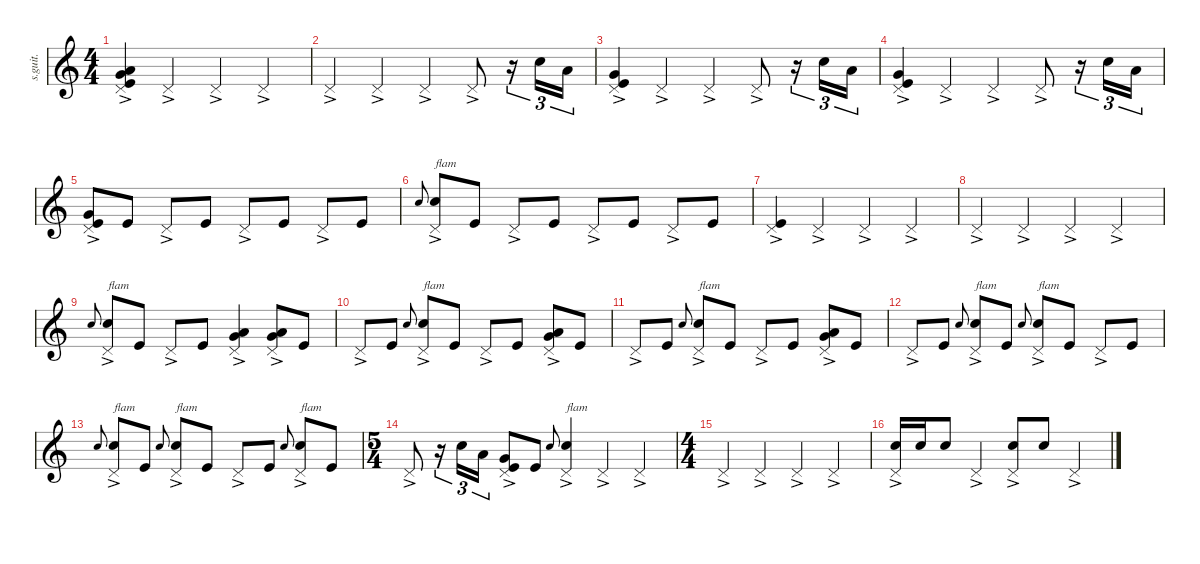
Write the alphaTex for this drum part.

\defaultSystemsLayout 4
\hideDynamics
\bracketExtendMode nobrackets
\track ("Dave Grohl" "s.guit.") {instrument percussion}
\staff {score}
\articulation defaults
\ts (4 4)
\tempo (210 hide)
\clef g2
\ks c
("Pedal Hi-Hat (hit)"{ac} "Kick (hit)" "Low Floor Tom (hit)" "Very Low Tom (hit)").4{lyrics (0 "") lyrics (1 "") lyrics (2 "") lyrics (3 "") lyrics (4 "") dy f} "Pedal Hi-Hat (hit)"{ac}.4{lyrics (0 "") lyrics (1 "") lyrics (2 "") lyrics (3 "") lyrics (4 "")} "Pedal Hi-Hat (hit)"{ac}.4{lyrics (0 "") lyrics (1 "") lyrics (2 "") lyrics (3 "") lyrics (4 "")} "Pedal Hi-Hat (hit)"{ac}.4{lyrics (0 "") lyrics (1 "") lyrics (2 "") lyrics (3 "") lyrics (4 "")} |
"Pedal Hi-Hat (hit)"{ac}.4{lyrics (0 "") lyrics (1 "") lyrics (2 "") lyrics (3 "") lyrics (4 "")} "Pedal Hi-Hat (hit)"{ac}.4{lyrics (0 "") lyrics (1 "") lyrics (2 "") lyrics (3 "") lyrics (4 "")} "Pedal Hi-Hat (hit)"{ac}.4{lyrics (0 "") lyrics (1 "") lyrics (2 "") lyrics (3 "") lyrics (4 "")} "Pedal Hi-Hat (hit)"{ac}.8{lyrics (0 "") lyrics (1 "") lyrics (2 "") lyrics (3 "") lyrics (4 "")} r.16{tu (3 2)} "Snare (hit) 2".16{tu (3 2) lyrics (0 "") lyrics (1 "") lyrics (2 "") lyrics (3 "") lyrics (4 "")} "Low Floor Tom (hit)".16{tu (3 2) lyrics (0 "") lyrics (1 "") lyrics (2 "") lyrics (3 "") lyrics (4 "")} |
("Pedal Hi-Hat (hit)"{ac} "Kick (hit)" "Very Low Tom (hit)").4{lyrics (0 "") lyrics (1 "") lyrics (2 "") lyrics (3 "") lyrics (4 "")} "Pedal Hi-Hat (hit)"{ac}.4{lyrics (0 "") lyrics (1 "") lyrics (2 "") lyrics (3 "") lyrics (4 "")} "Pedal Hi-Hat (hit)"{ac}.4{lyrics (0 "") lyrics (1 "") lyrics (2 "") lyrics (3 "") lyrics (4 "")} "Pedal Hi-Hat (hit)"{ac}.8{lyrics (0 "") lyrics (1 "") lyrics (2 "") lyrics (3 "") lyrics (4 "")} r.16{tu (3 2)} "Snare (hit) 2".16{tu (3 2) lyrics (0 "") lyrics (1 "") lyrics (2 "") lyrics (3 "") lyrics (4 "")} "Low Floor Tom (hit)".16{tu (3 2) lyrics (0 "") lyrics (1 "") lyrics (2 "") lyrics (3 "") lyrics (4 "")} |
("Pedal Hi-Hat (hit)"{ac} "Kick (hit)" "Very Low Tom (hit)").4{lyrics (0 "") lyrics (1 "") lyrics (2 "") lyrics (3 "") lyrics (4 "")} "Pedal Hi-Hat (hit)"{ac}.4{lyrics (0 "") lyrics (1 "") lyrics (2 "") lyrics (3 "") lyrics (4 "")} "Pedal Hi-Hat (hit)"{ac}.4{lyrics (0 "") lyrics (1 "") lyrics (2 "") lyrics (3 "") lyrics (4 "")} "Pedal Hi-Hat (hit)"{ac}.8{lyrics (0 "") lyrics (1 "") lyrics (2 "") lyrics (3 "") lyrics (4 "")} r.16{tu (3 2)} "Snare (hit) 2".16{tu (3 2) lyrics (0 "") lyrics (1 "") lyrics (2 "") lyrics (3 "") lyrics (4 "")} "Low Floor Tom (hit)".16{tu (3 2) lyrics (0 "") lyrics (1 "") lyrics (2 "") lyrics (3 "") lyrics (4 "")} |
("Pedal Hi-Hat (hit)"{ac} "Kick (hit)" "Very Low Tom (hit)").8{lyrics (0 "") lyrics (1 "") lyrics (2 "") lyrics (3 "") lyrics (4 "")} "Kick (hit)".8{lyrics (0 "") lyrics (1 "") lyrics (2 "") lyrics (3 "") lyrics (4 "")} "Pedal Hi-Hat (hit)"{ac}.8{lyrics (0 "") lyrics (1 "") lyrics (2 "") lyrics (3 "") lyrics (4 "")} "Kick (hit)".8{lyrics (0 "") lyrics (1 "") lyrics (2 "") lyrics (3 "") lyrics (4 "")} "Pedal Hi-Hat (hit)"{ac}.8{lyrics (0 "") lyrics (1 "") lyrics (2 "") lyrics (3 "") lyrics (4 "")} "Kick (hit)".8{lyrics (0 "") lyrics (1 "") lyrics (2 "") lyrics (3 "") lyrics (4 "")} "Pedal Hi-Hat (hit)"{ac}.8{lyrics (0 "") lyrics (1 "") lyrics (2 "") lyrics (3 "") lyrics (4 "")} "Kick (hit)".8{lyrics (0 "") lyrics (1 "") lyrics (2 "") lyrics (3 "") lyrics (4 "")} |
"Snare (hit) 2".8{lyrics (0 "") lyrics (1 "") lyrics (2 "") lyrics (3 "") lyrics (4 "") gr onbeat} ("Pedal Hi-Hat (hit)"{ac} "Snare (hit) 2").8{txt "flam" lyrics (0 "") lyrics (1 "") lyrics (2 "") lyrics (3 "") lyrics (4 "")} "Kick (hit)".8{lyrics (0 "") lyrics (1 "") lyrics (2 "") lyrics (3 "") lyrics (4 "")} "Pedal Hi-Hat (hit)"{ac}.8{lyrics (0 "") lyrics (1 "") lyrics (2 "") lyrics (3 "") lyrics (4 "")} "Kick (hit)".8{lyrics (0 "") lyrics (1 "") lyrics (2 "") lyrics (3 "") lyrics (4 "")} "Pedal Hi-Hat (hit)"{ac}.8{lyrics (0 "") lyrics (1 "") lyrics (2 "") lyrics (3 "") lyrics (4 "")} "Kick (hit)".8{lyrics (0 "") lyrics (1 "") lyrics (2 "") lyrics (3 "") lyrics (4 "")} "Pedal Hi-Hat (hit)"{ac}.8{lyrics (0 "") lyrics (1 "") lyrics (2 "") lyrics (3 "") lyrics (4 "")} "Kick (hit)".8{lyrics (0 "") lyrics (1 "") lyrics (2 "") lyrics (3 "") lyrics (4 "")} |
("Pedal Hi-Hat (hit)"{ac} "Kick (hit)").4{lyrics (0 "") lyrics (1 "") lyrics (2 "") lyrics (3 "") lyrics (4 "")} "Pedal Hi-Hat (hit)"{ac}.4{lyrics (0 "") lyrics (1 "") lyrics (2 "") lyrics (3 "") lyrics (4 "")} "Pedal Hi-Hat (hit)"{ac}.4{lyrics (0 "") lyrics (1 "") lyrics (2 "") lyrics (3 "") lyrics (4 "")} "Pedal Hi-Hat (hit)"{ac}.4{lyrics (0 "") lyrics (1 "") lyrics (2 "") lyrics (3 "") lyrics (4 "")} |
"Pedal Hi-Hat (hit)"{ac}.4{lyrics (0 "") lyrics (1 "") lyrics (2 "") lyrics (3 "") lyrics (4 "")} "Pedal Hi-Hat (hit)"{ac}.4{lyrics (0 "") lyrics (1 "") lyrics (2 "") lyrics (3 "") lyrics (4 "")} "Pedal Hi-Hat (hit)"{ac}.4{lyrics (0 "") lyrics (1 "") lyrics (2 "") lyrics (3 "") lyrics (4 "")} "Pedal Hi-Hat (hit)"{ac}.4{lyrics (0 "") lyrics (1 "") lyrics (2 "") lyrics (3 "") lyrics (4 "")} |
"Snare (hit) 2".8{lyrics (0 "") lyrics (1 "") lyrics (2 "") lyrics (3 "") lyrics (4 "") gr onbeat} ("Pedal Hi-Hat (hit)"{ac} "Snare (hit) 2").8{txt "flam" lyrics (0 "") lyrics (1 "") lyrics (2 "") lyrics (3 "") lyrics (4 "")} "Kick (hit)".8{lyrics (0 "") lyrics (1 "") lyrics (2 "") lyrics (3 "") lyrics (4 "")} "Pedal Hi-Hat (hit)"{ac}.8{lyrics (0 "") lyrics (1 "") lyrics (2 "") lyrics (3 "") lyrics (4 "")} "Kick (hit)".8{lyrics (0 "") lyrics (1 "") lyrics (2 "") lyrics (3 "") lyrics (4 "")} ("Pedal Hi-Hat (hit)"{ac} "Low Floor Tom (hit)" "Very Low Tom (hit)").4{lyrics (0 "") lyrics (1 "") lyrics (2 "") lyrics (3 "") lyrics (4 "")} ("Pedal Hi-Hat (hit)"{ac} "Low Floor Tom (hit)" "Very Low Tom (hit)").8{lyrics (0 "") lyrics (1 "") lyrics (2 "") lyrics (3 "") lyrics (4 "")} "Kick (hit)".8{lyrics (0 "") lyrics (1 "") lyrics (2 "") lyrics (3 "") lyrics (4 "")} |
"Pedal Hi-Hat (hit)"{ac}.8{lyrics (0 "") lyrics (1 "") lyrics (2 "") lyrics (3 "") lyrics (4 "")} "Kick (hit)".8{lyrics (0 "") lyrics (1 "") lyrics (2 "") lyrics (3 "") lyrics (4 "")} "Snare (hit) 2".8{lyrics (0 "") lyrics (1 "") lyrics (2 "") lyrics (3 "") lyrics (4 "") gr onbeat} ("Pedal Hi-Hat (hit)"{ac} "Snare (hit) 2").8{txt "flam" lyrics (0 "") lyrics (1 "") lyrics (2 "") lyrics (3 "") lyrics (4 "")} "Kick (hit)".8{lyrics (0 "") lyrics (1 "") lyrics (2 "") lyrics (3 "") lyrics (4 "")} "Pedal Hi-Hat (hit)"{ac}.8{lyrics (0 "") lyrics (1 "") lyrics (2 "") lyrics (3 "") lyrics (4 "")} "Kick (hit)".8{lyrics (0 "") lyrics (1 "") lyrics (2 "") lyrics (3 "") lyrics (4 "")} ("Pedal Hi-Hat (hit)"{ac} "Low Floor Tom (hit)" "Very Low Tom (hit)").8{lyrics (0 "") lyrics (1 "") lyrics (2 "") lyrics (3 "") lyrics (4 "")} "Kick (hit)".8{lyrics (0 "") lyrics (1 "") lyrics (2 "") lyrics (3 "") lyrics (4 "")} |
"Pedal Hi-Hat (hit)"{ac}.8{lyrics (0 "") lyrics (1 "") lyrics (2 "") lyrics (3 "") lyrics (4 "")} "Kick (hit)".8{lyrics (0 "") lyrics (1 "") lyrics (2 "") lyrics (3 "") lyrics (4 "")} "Snare (hit) 2".8{lyrics (0 "") lyrics (1 "") lyrics (2 "") lyrics (3 "") lyrics (4 "") gr onbeat} ("Pedal Hi-Hat (hit)"{ac} "Snare (hit) 2").8{txt "flam" lyrics (0 "") lyrics (1 "") lyrics (2 "") lyrics (3 "") lyrics (4 "")} "Kick (hit)".8{lyrics (0 "") lyrics (1 "") lyrics (2 "") lyrics (3 "") lyrics (4 "")} "Pedal Hi-Hat (hit)"{ac}.8{lyrics (0 "") lyrics (1 "") lyrics (2 "") lyrics (3 "") lyrics (4 "")} "Kick (hit)".8{lyrics (0 "") lyrics (1 "") lyrics (2 "") lyrics (3 "") lyrics (4 "")} ("Pedal Hi-Hat (hit)"{ac} "Low Floor Tom (hit)" "Very Low Tom (hit)").8{lyrics (0 "") lyrics (1 "") lyrics (2 "") lyrics (3 "") lyrics (4 "")} "Kick (hit)".8{lyrics (0 "") lyrics (1 "") lyrics (2 "") lyrics (3 "") lyrics (4 "")} |
"Pedal Hi-Hat (hit)"{ac}.8{lyrics (0 "") lyrics (1 "") lyrics (2 "") lyrics (3 "") lyrics (4 "")} "Kick (hit)".8{lyrics (0 "") lyrics (1 "") lyrics (2 "") lyrics (3 "") lyrics (4 "")} "Snare (hit) 2".8{lyrics (0 "") lyrics (1 "") lyrics (2 "") lyrics (3 "") lyrics (4 "") gr onbeat} ("Pedal Hi-Hat (hit)"{ac} "Snare (hit) 2").8{txt "flam" lyrics (0 "") lyrics (1 "") lyrics (2 "") lyrics (3 "") lyrics (4 "")} "Kick (hit)".8{lyrics (0 "") lyrics (1 "") lyrics (2 "") lyrics (3 "") lyrics (4 "")} "Snare (hit) 2".8{lyrics (0 "") lyrics (1 "") lyrics (2 "") lyrics (3 "") lyrics (4 "") gr onbeat} ("Pedal Hi-Hat (hit)"{ac} "Snare (hit) 2").8{txt "flam" lyrics (0 "") lyrics (1 "") lyrics (2 "") lyrics (3 "") lyrics (4 "")} "Kick (hit)".8{lyrics (0 "") lyrics (1 "") lyrics (2 "") lyrics (3 "") lyrics (4 "")} "Pedal Hi-Hat (hit)"{ac}.8{lyrics (0 "") lyrics (1 "") lyrics (2 "") lyrics (3 "") lyrics (4 "")} "Kick (hit)".8{lyrics (0 "") lyrics (1 "") lyrics (2 "") lyrics (3 "") lyrics (4 "")} |
"Snare (hit) 2".8{lyrics (0 "") lyrics (1 "") lyrics (2 "") lyrics (3 "") lyrics (4 "") gr onbeat} ("Pedal Hi-Hat (hit)"{ac} "Snare (hit) 2").8{txt "flam" lyrics (0 "") lyrics (1 "") lyrics (2 "") lyrics (3 "") lyrics (4 "")} "Kick (hit)".8{lyrics (0 "") lyrics (1 "") lyrics (2 "") lyrics (3 "") lyrics (4 "")} "Snare (hit) 2".8{lyrics (0 "") lyrics (1 "") lyrics (2 "") lyrics (3 "") lyrics (4 "") gr onbeat} ("Pedal Hi-Hat (hit)"{ac} "Snare (hit) 2").8{txt "flam" lyrics (0 "") lyrics (1 "") lyrics (2 "") lyrics (3 "") lyrics (4 "")} "Kick (hit)".8{lyrics (0 "") lyrics (1 "") lyrics (2 "") lyrics (3 "") lyrics (4 "")} "Pedal Hi-Hat (hit)"{ac}.8{lyrics (0 "") lyrics (1 "") lyrics (2 "") lyrics (3 "") lyrics (4 "")} "Kick (hit)".8{lyrics (0 "") lyrics (1 "") lyrics (2 "") lyrics (3 "") lyrics (4 "")} "Snare (hit) 2".8{lyrics (0 "") lyrics (1 "") lyrics (2 "") lyrics (3 "") lyrics (4 "") gr onbeat} ("Pedal Hi-Hat (hit)"{ac} "Snare (hit) 2").8{txt "flam" lyrics (0 "") lyrics (1 "") lyrics (2 "") lyrics (3 "") lyrics (4 "")} "Kick (hit)".8{lyrics (0 "") lyrics (1 "") lyrics (2 "") lyrics (3 "") lyrics (4 "")} |
\ts (5 4)
\beaming (8 2 2 2 2)
"Pedal Hi-Hat (hit)"{ac}.8{lyrics (0 "") lyrics (1 "") lyrics (2 "") lyrics (3 "") lyrics (4 "")} r.16{tu (3 2)} "Snare (hit) 2".16{tu (3 2) lyrics (0 "") lyrics (1 "") lyrics (2 "") lyrics (3 "") lyrics (4 "")} "Low Floor Tom (hit)".16{tu (3 2) lyrics (0 "") lyrics (1 "") lyrics (2 "") lyrics (3 "") lyrics (4 "")} ("Pedal Hi-Hat (hit)"{ac} "Kick (hit)" "Very Low Tom (hit)").8{lyrics (0 "") lyrics (1 "") lyrics (2 "") lyrics (3 "") lyrics (4 "")} "Kick (hit)".8{lyrics (0 "") lyrics (1 "") lyrics (2 "") lyrics (3 "") lyrics (4 "")} "Snare (hit) 2".8{lyrics (0 "") lyrics (1 "") lyrics (2 "") lyrics (3 "") lyrics (4 "") gr onbeat} ("Pedal Hi-Hat (hit)"{ac} "Snare (hit) 2").4{txt "flam" lyrics (0 "") lyrics (1 "") lyrics (2 "") lyrics (3 "") lyrics (4 "")} "Pedal Hi-Hat (hit)"{ac}.4{lyrics (0 "") lyrics (1 "") lyrics (2 "") lyrics (3 "") lyrics (4 "")} "Pedal Hi-Hat (hit)"{ac}.4{lyrics (0 "") lyrics (1 "") lyrics (2 "") lyrics (3 "") lyrics (4 "")} |
\ts (4 4)
\beaming (8 2 2 2 2)
"Pedal Hi-Hat (hit)"{ac}.4{lyrics (0 "") lyrics (1 "") lyrics (2 "") lyrics (3 "") lyrics (4 "")} "Pedal Hi-Hat (hit)"{ac}.4{lyrics (0 "") lyrics (1 "") lyrics (2 "") lyrics (3 "") lyrics (4 "")} "Pedal Hi-Hat (hit)"{ac}.4{lyrics (0 "") lyrics (1 "") lyrics (2 "") lyrics (3 "") lyrics (4 "")} "Pedal Hi-Hat (hit)"{ac}.4{lyrics (0 "") lyrics (1 "") lyrics (2 "") lyrics (3 "") lyrics (4 "")} |
("Pedal Hi-Hat (hit)"{ac} "Snare (hit) 2").16{lyrics (0 "") lyrics (1 "") lyrics (2 "") lyrics (3 "") lyrics (4 "")} "Snare (hit) 2".16{lyrics (0 "") lyrics (1 "") lyrics (2 "") lyrics (3 "") lyrics (4 "")} "Snare (hit) 2".8{lyrics (0 "") lyrics (1 "") lyrics (2 "") lyrics (3 "") lyrics (4 "")} "Pedal Hi-Hat (hit)"{ac}.4{lyrics (0 "") lyrics (1 "") lyrics (2 "") lyrics (3 "") lyrics (4 "")} ("Pedal Hi-Hat (hit)"{ac} "Snare (hit) 2").8{lyrics (0 "") lyrics (1 "") lyrics (2 "") lyrics (3 "") lyrics (4 "")} "Snare (hit) 2".8{lyrics (0 "") lyrics (1 "") lyrics (2 "") lyrics (3 "") lyrics (4 "")} "Pedal Hi-Hat (hit)"{ac}.4{lyrics (0 "") lyrics (1 "") lyrics (2 "") lyrics (3 "") lyrics (4 "")}
